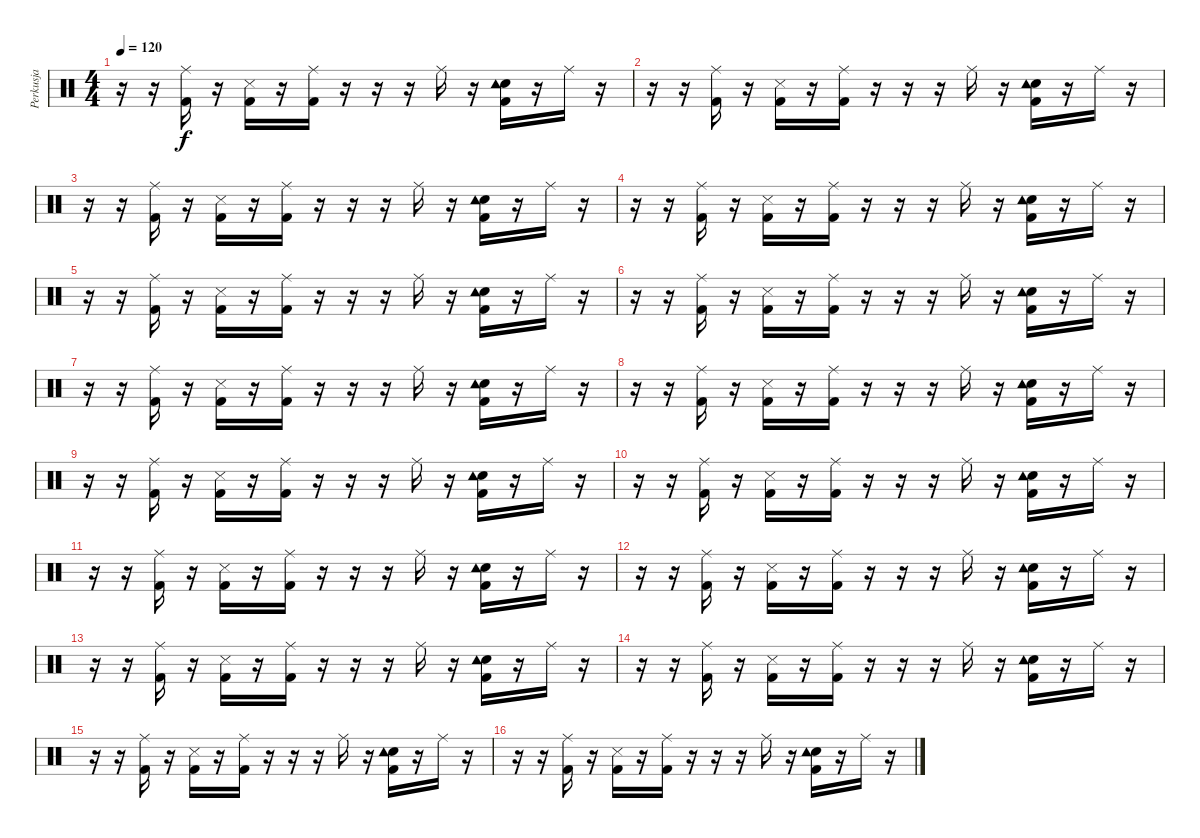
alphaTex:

\track ("Perkusja" "Perkusja") {instrument percussion}
\staff {score}
\articulation defaults
\ts (4 4)
\tempo 120
\clef neutral
\ks c
r.16{dy f} r.16 ("Kick (hit) 2" "Ride (middle)").16 r.16 ("Snare (side stick) 3" "Kick (hit) 2").16 r.16 ("Kick (hit) 2" "Ride (middle)").16 r.16 r.16 r.16 "Ride (middle)".16 r.16 ("Electric Snare (hit)" "Tambourine (hit)" "Kick (hit) 2").16 r.16 "Ride (middle)".16 r.16 |
r.16 r.16 ("Kick (hit) 2" "Ride (middle)").16 r.16 ("Snare (side stick) 3" "Kick (hit) 2").16 r.16 ("Kick (hit) 2" "Ride (middle)").16 r.16 r.16 r.16 "Ride (middle)".16 r.16 ("Electric Snare (hit)" "Tambourine (hit)" "Kick (hit) 2").16 r.16 "Ride (middle)".16 r.16 |
r.16 r.16 ("Kick (hit) 2" "Ride (middle)").16 r.16 ("Snare (side stick) 3" "Kick (hit) 2").16 r.16 ("Kick (hit) 2" "Ride (middle)").16 r.16 r.16 r.16 "Ride (middle)".16 r.16 ("Electric Snare (hit)" "Tambourine (hit)" "Kick (hit) 2").16 r.16 "Ride (middle)".16 r.16 |
r.16 r.16 ("Kick (hit) 2" "Ride (middle)").16 r.16 ("Snare (side stick) 3" "Kick (hit) 2").16 r.16 ("Kick (hit) 2" "Ride (middle)").16 r.16 r.16 r.16 "Ride (middle)".16 r.16 ("Electric Snare (hit)" "Tambourine (hit)" "Kick (hit) 2").16 r.16 "Ride (middle)".16 r.16 |
r.16 r.16 ("Kick (hit) 2" "Ride (middle)").16 r.16 ("Snare (side stick) 3" "Kick (hit) 2").16 r.16 ("Kick (hit) 2" "Ride (middle)").16 r.16 r.16 r.16 "Ride (middle)".16 r.16 ("Electric Snare (hit)" "Tambourine (hit)" "Kick (hit) 2").16 r.16 "Ride (middle)".16 r.16 |
r.16 r.16 ("Kick (hit) 2" "Ride (middle)").16 r.16 ("Snare (side stick) 3" "Kick (hit) 2").16 r.16 ("Kick (hit) 2" "Ride (middle)").16 r.16 r.16 r.16 "Ride (middle)".16 r.16 ("Electric Snare (hit)" "Tambourine (hit)" "Kick (hit) 2").16 r.16 "Ride (middle)".16 r.16 |
r.16 r.16 ("Kick (hit) 2" "Ride (middle)").16 r.16 ("Snare (side stick) 3" "Kick (hit) 2").16 r.16 ("Kick (hit) 2" "Ride (middle)").16 r.16 r.16 r.16 "Ride (middle)".16 r.16 ("Electric Snare (hit)" "Tambourine (hit)" "Kick (hit) 2").16 r.16 "Ride (middle)".16 r.16 |
r.16 r.16 ("Kick (hit) 2" "Ride (middle)").16 r.16 ("Snare (side stick) 3" "Kick (hit) 2").16 r.16 ("Kick (hit) 2" "Ride (middle)").16 r.16 r.16 r.16 "Ride (middle)".16 r.16 ("Electric Snare (hit)" "Tambourine (hit)" "Kick (hit) 2").16 r.16 "Ride (middle)".16 r.16 |
r.16 r.16 ("Kick (hit) 2" "Ride (middle)").16 r.16 ("Snare (side stick) 3" "Kick (hit) 2").16 r.16 ("Kick (hit) 2" "Ride (middle)").16 r.16 r.16 r.16 "Ride (middle)".16 r.16 ("Electric Snare (hit)" "Tambourine (hit)" "Kick (hit) 2").16 r.16 "Ride (middle)".16 r.16 |
r.16 r.16 ("Kick (hit) 2" "Ride (middle)").16 r.16 ("Snare (side stick) 3" "Kick (hit) 2").16 r.16 ("Kick (hit) 2" "Ride (middle)").16 r.16 r.16 r.16 "Ride (middle)".16 r.16 ("Electric Snare (hit)" "Tambourine (hit)" "Kick (hit) 2").16 r.16 "Ride (middle)".16 r.16 |
r.16 r.16 ("Kick (hit) 2" "Ride (middle)").16 r.16 ("Snare (side stick) 3" "Kick (hit) 2").16 r.16 ("Kick (hit) 2" "Ride (middle)").16 r.16 r.16 r.16 "Ride (middle)".16 r.16 ("Electric Snare (hit)" "Tambourine (hit)" "Kick (hit) 2").16 r.16 "Ride (middle)".16 r.16 |
r.16 r.16 ("Kick (hit) 2" "Ride (middle)").16 r.16 ("Snare (side stick) 3" "Kick (hit) 2").16 r.16 ("Kick (hit) 2" "Ride (middle)").16 r.16 r.16 r.16 "Ride (middle)".16 r.16 ("Electric Snare (hit)" "Tambourine (hit)" "Kick (hit) 2").16 r.16 "Ride (middle)".16 r.16 |
r.16 r.16 ("Kick (hit) 2" "Ride (middle)").16 r.16 ("Snare (side stick) 3" "Kick (hit) 2").16 r.16 ("Kick (hit) 2" "Ride (middle)").16 r.16 r.16 r.16 "Ride (middle)".16 r.16 ("Electric Snare (hit)" "Tambourine (hit)" "Kick (hit) 2").16 r.16 "Ride (middle)".16 r.16 |
r.16 r.16 ("Kick (hit) 2" "Ride (middle)").16 r.16 ("Snare (side stick) 3" "Kick (hit) 2").16 r.16 ("Kick (hit) 2" "Ride (middle)").16 r.16 r.16 r.16 "Ride (middle)".16 r.16 ("Electric Snare (hit)" "Tambourine (hit)" "Kick (hit) 2").16 r.16 "Ride (middle)".16 r.16 |
r.16 r.16 ("Kick (hit) 2" "Ride (middle)").16 r.16 ("Snare (side stick) 3" "Kick (hit) 2").16 r.16 ("Kick (hit) 2" "Ride (middle)").16 r.16 r.16 r.16 "Ride (middle)".16 r.16 ("Electric Snare (hit)" "Tambourine (hit)" "Kick (hit) 2").16 r.16 "Ride (middle)".16 r.16 |
r.16 r.16 ("Kick (hit) 2" "Ride (middle)").16 r.16 ("Snare (side stick) 3" "Kick (hit) 2").16 r.16 ("Kick (hit) 2" "Ride (middle)").16 r.16 r.16 r.16 "Ride (middle)".16 r.16 ("Electric Snare (hit)" "Tambourine (hit)" "Kick (hit) 2").16 r.16 "Ride (middle)".16 r.16
